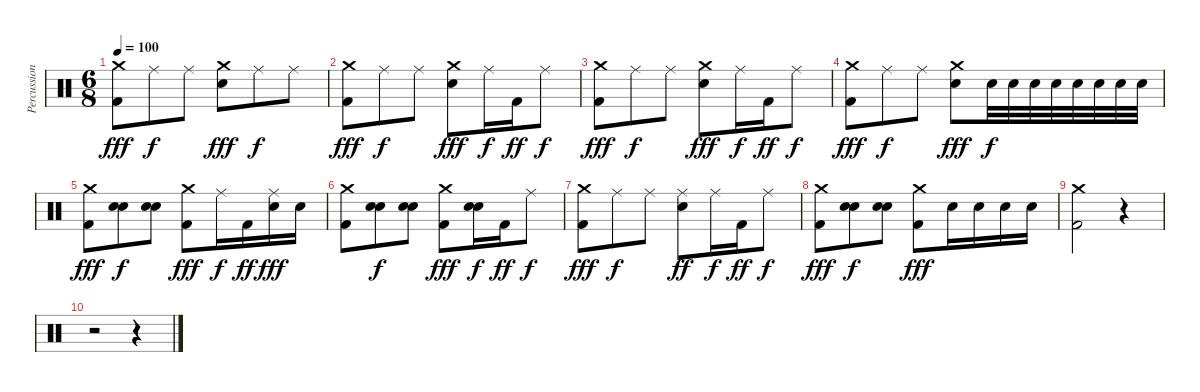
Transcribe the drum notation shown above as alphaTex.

\track ("Percussion" "Percussion") {instrument percussion}
\staff {score}
\articulation defaults
\ts (6 8)
\tempo 100
\clef neutral
\ks c
("Kick (hit) 2" "Crash medium (hit)").8{dy fff} "Ride (middle)".8{dy f} "Ride (middle)".8 ("Electric Snare (hit)" "Crash medium (hit)").8{dy fff} "Ride (middle)".8{dy f} "Ride (middle)".8 |
("Kick (hit) 2" "Crash medium (hit)").8{dy fff} "Ride (middle)".8{dy f} "Ride (middle)".8 ("Electric Snare (hit)" "Crash medium (hit)").8{dy fff} "Ride (middle)".16{dy f} "Kick (hit) 2".16{dy ff} "Ride (middle)".8{dy f} |
("Kick (hit) 2" "Crash medium (hit)").8{dy fff} "Ride (middle)".8{dy f} "Ride (middle)".8 ("Electric Snare (hit)" "Crash medium (hit)").8{dy fff} "Ride (middle)".16{dy f} "Kick (hit) 2".16{dy ff} "Ride (middle)".8{dy f} |
("Kick (hit) 2" "Crash medium (hit)").8{dy fff} "Ride (middle)".8{dy f} "Ride (middle)".8 ("Electric Snare (hit)" "Crash medium (hit)").8{dy fff} "Electric Snare (hit)".32{dy f} "Electric Snare (hit)".32 "Electric Snare (hit)".32 "Electric Snare (hit)".32 "Electric Snare (hit)".32 "Electric Snare (hit)".32 "Electric Snare (hit)".32 "Electric Snare (hit)".32 |
("Kick (hit) 2" "Crash medium (hit)").8{dy fff} ("Electric Snare (hit)" "Electric Snare (hit)").8{dy f} ("Electric Snare (hit)" "Electric Snare (hit)").8 ("Kick (hit) 2" "Crash medium (hit)").8{dy fff} "Ride (middle)".16{dy f} "Kick (hit) 2".16{dy ff} ("Ride (middle)" "Electric Snare (hit)").16{dy fff} "Electric Snare (hit)".16 |
("Kick (hit) 2" "Crash medium (hit)").8 ("Electric Snare (hit)" "Electric Snare (hit)").8{dy f} ("Electric Snare (hit)" "Electric Snare (hit)").8 ("Kick (hit) 2" "Crash medium (hit)").8{dy fff} ("Electric Snare (hit)" "Electric Snare (hit)").16{dy f} "Kick (hit) 2".16{dy ff} "Ride (middle)".8{dy f} |
("Kick (hit) 2" "Crash medium (hit)").8{dy fff} "Ride (middle)".8{dy f} "Ride (middle)".8 ("Electric Snare (hit)" "Ride (middle)").8{dy ff} "Ride (middle)".16{dy f} "Kick (hit) 2".16{dy ff} "Ride (middle)".8{dy f} |
("Kick (hit) 2" "Crash medium (hit)").8{dy fff} ("Electric Snare (hit)" "Electric Snare (hit)").8{dy f} ("Electric Snare (hit)" "Electric Snare (hit)").8 ("Kick (hit) 2" "Crash medium (hit)").8{dy fff} "Electric Snare (hit)".16 "Electric Snare (hit)".16 "Electric Snare (hit)".16 "Electric Snare (hit)".16 |
("Crash medium (hit)" "Kick (hit) 2").2 r.4 |
r.2 r.4
